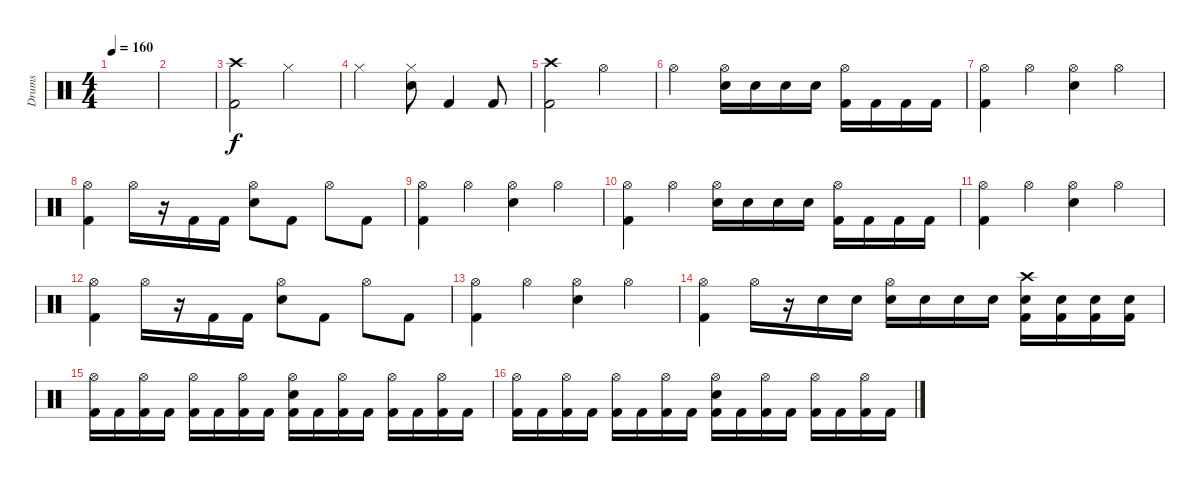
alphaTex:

\track ("Drums" "Drums") {instrument percussion}
\staff {score}
\articulation defaults
\ts (4 4)
\tempo 160
\clef neutral
\ks c
|
|
("Crash high (hit)" "Kick (hit) 2").2 "Hi-Hat (closed)".2 |
"Hi-Hat (closed)".2 ("Hi-Hat (closed)" "Snare (hit) 2").8 "Kick (hit) 2".4 "Kick (hit) 2".8 |
("Crash high (hit)" "Kick (hit) 2").2 "Hi-Hat (open)".2 |
"Hi-Hat (open)".2 ("Hi-Hat (open)" "Electric Snare (hit)").16 "Electric Snare (hit)".16 "Electric Snare (hit)".16 "Electric Snare (hit)".16 ("Hi-Hat (open)" "Kick (hit) 2").16 "Kick (hit) 2".16 "Kick (hit) 2".16 "Kick (hit) 2".16 |
("Hi-Hat (open)" "Kick (hit) 2").4 "Hi-Hat (open)".4 ("Hi-Hat (open)" "Electric Snare (hit)").4 "Hi-Hat (open)".4 |
("Hi-Hat (open)" "Kick (hit) 2").4 "Hi-Hat (open)".16 r.16 "Kick (hit) 2".16 "Kick (hit) 2".16 ("Hi-Hat (open)" "Electric Snare (hit)").8 "Kick (hit) 2".8 "Hi-Hat (open)".8 "Kick (hit) 2".8 |
("Hi-Hat (open)" "Kick (hit) 2").4 "Hi-Hat (open)".4 ("Hi-Hat (open)" "Electric Snare (hit)").4 "Hi-Hat (open)".4 |
("Hi-Hat (open)" "Kick (hit) 2").4 "Hi-Hat (open)".4 ("Hi-Hat (open)" "Electric Snare (hit)").16 "Electric Snare (hit)".16 "Electric Snare (hit)".16 "Electric Snare (hit)".16 ("Hi-Hat (open)" "Kick (hit) 2").16 "Kick (hit) 2".16 "Kick (hit) 2".16 "Kick (hit) 2".16 |
("Hi-Hat (open)" "Kick (hit) 2").4 "Hi-Hat (open)".4 ("Hi-Hat (open)" "Electric Snare (hit)").4 "Hi-Hat (open)".4 |
("Hi-Hat (open)" "Kick (hit) 2").4 "Hi-Hat (open)".16 r.16 "Kick (hit) 2".16 "Kick (hit) 2".16 ("Hi-Hat (open)" "Electric Snare (hit)").8 "Kick (hit) 2".8 "Hi-Hat (open)".8 "Kick (hit) 2".8 |
("Hi-Hat (open)" "Kick (hit) 2").4 "Hi-Hat (open)".4 ("Hi-Hat (open)" "Electric Snare (hit)").4 "Hi-Hat (open)".4 |
("Hi-Hat (open)" "Kick (hit) 2").4 "Hi-Hat (open)".16 r.16 "Electric Snare (hit)".16 "Electric Snare (hit)".16 ("Hi-Hat (open)" "Electric Snare (hit)").16 "Electric Snare (hit)".16 "Electric Snare (hit)".16 "Electric Snare (hit)".16 ("Crash high (hit)" "Electric Snare (hit)" "Kick (hit) 2").16 ("Electric Snare (hit)" "Kick (hit) 2").16 ("Electric Snare (hit)" "Kick (hit) 2").16 ("Electric Snare (hit)" "Kick (hit) 2").16 |
("Hi-Hat (open)" "Kick (hit) 2").16 "Kick (hit) 2".16 ("Hi-Hat (open)" "Kick (hit) 2").16 "Kick (hit) 2".16 ("Hi-Hat (open)" "Kick (hit) 2").16 "Kick (hit) 2".16 ("Hi-Hat (open)" "Kick (hit) 2").16 "Kick (hit) 2".16 ("Hi-Hat (open)" "Electric Snare (hit)" "Kick (hit) 2").16 "Kick (hit) 2".16 ("Hi-Hat (open)" "Kick (hit) 2").16 "Kick (hit) 2".16 ("Hi-Hat (open)" "Kick (hit) 2").16 "Kick (hit) 2".16 ("Hi-Hat (open)" "Kick (hit) 2").16 "Kick (hit) 2".16 |
("Hi-Hat (open)" "Kick (hit) 2").16 "Kick (hit) 2".16 ("Hi-Hat (open)" "Kick (hit) 2").16 "Kick (hit) 2".16 ("Hi-Hat (open)" "Kick (hit) 2").16 "Kick (hit) 2".16 ("Hi-Hat (open)" "Kick (hit) 2").16 "Kick (hit) 2".16 ("Hi-Hat (open)" "Electric Snare (hit)" "Kick (hit) 2").16 "Kick (hit) 2".16 ("Hi-Hat (open)" "Kick (hit) 2").16 "Kick (hit) 2".16 ("Hi-Hat (open)" "Kick (hit) 2").16 "Kick (hit) 2".16 ("Hi-Hat (open)" "Kick (hit) 2").16 "Kick (hit) 2".16
